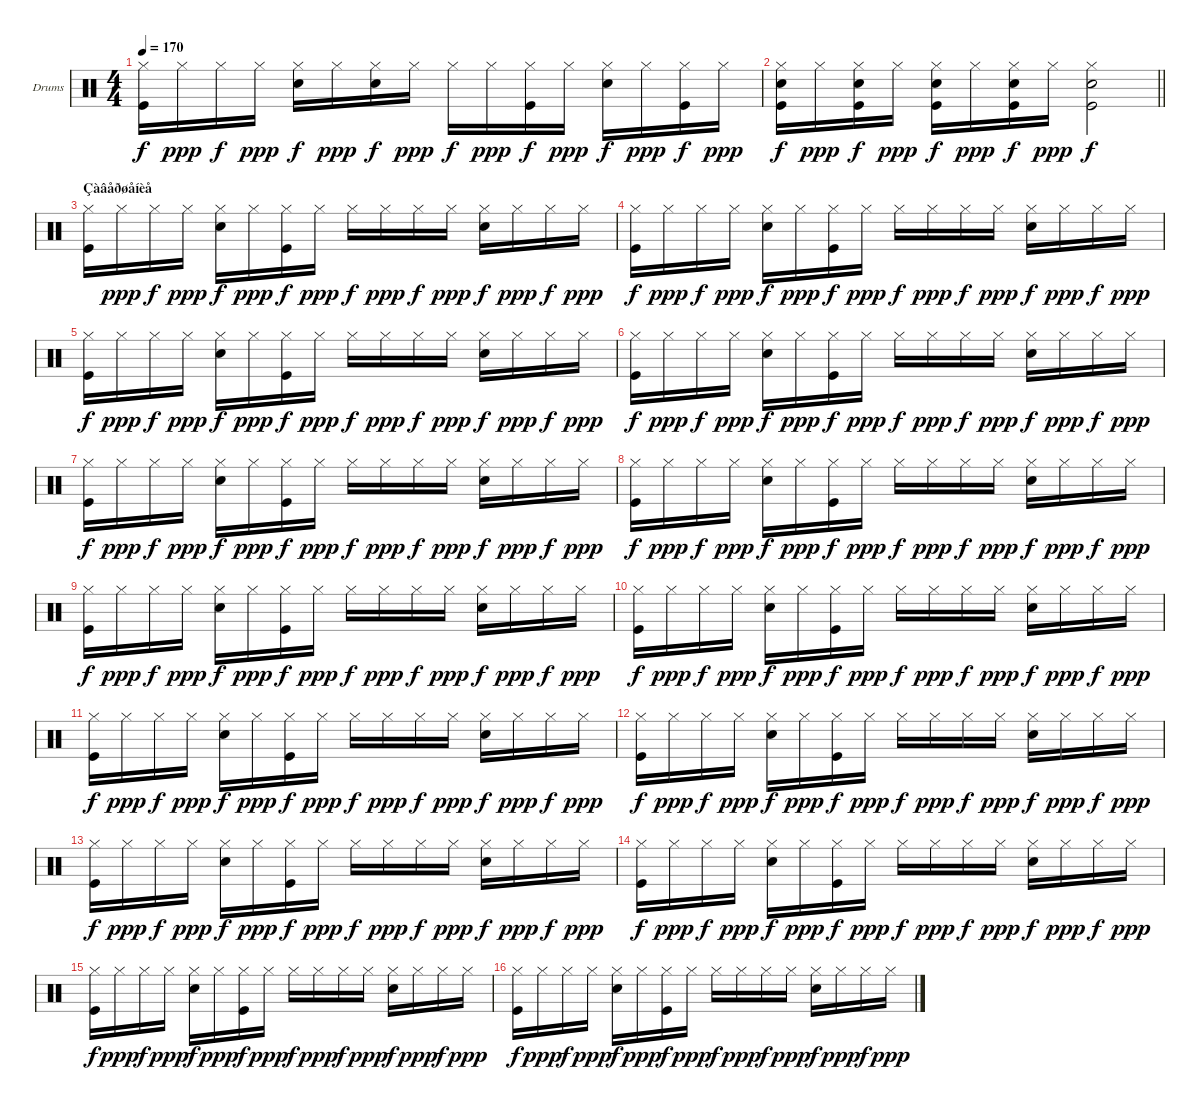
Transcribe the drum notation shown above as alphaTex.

\bracketExtendMode groupsimilarinstruments
\firstSystemTrackNameOrientation horizontal
\otherSystemsTrackNameOrientation horizontal
\track ("Drumkit" "Drums") {instrument percussion}
\staff {score}
\articulation defaults
\ts (4 4)
\tempo 170
\clef neutral
\ks c
("Hi-Hat (closed)" "Kick (hit)").16{dy f} "Hi-Hat (closed)".16{dy ppp} "Hi-Hat (closed)".16{dy f} "Hi-Hat (closed)".16{dy ppp} ("Hi-Hat (closed)" "Snare (hit) 2").16{dy f} "Hi-Hat (closed)".16{dy ppp} ("Hi-Hat (closed)" "Snare (hit) 2").16{dy f} "Hi-Hat (closed)".16{dy ppp} "Hi-Hat (closed)".16{dy f} "Hi-Hat (closed)".16{dy ppp} ("Hi-Hat (closed)" "Kick (hit)").16{dy f} "Hi-Hat (closed)".16{dy ppp} ("Hi-Hat (closed)" "Snare (hit) 2").16{dy f} "Hi-Hat (closed)".16{dy ppp} ("Hi-Hat (closed)" "Kick (hit)").16{dy f} "Hi-Hat (closed)".16{dy ppp} |
\barLineRight lightlight
("Hi-Hat (closed)" "Snare (hit) 2" "Kick (hit)").16{dy f} "Hi-Hat (closed)".16{dy ppp} ("Hi-Hat (closed)" "Snare (hit) 2" "Kick (hit)").16{dy f} "Hi-Hat (closed)".16{dy ppp} ("Hi-Hat (closed)" "Kick (hit)" "Snare (hit) 2").16{dy f} "Hi-Hat (closed)".16{dy ppp} ("Hi-Hat (closed)" "Kick (hit)" "Snare (hit) 2").16{dy f} "Hi-Hat (closed)".16{dy ppp} ("Hi-Hat (closed)" "Snare (hit) 2" "Kick (hit)").2{dy f} |
\section ("" "Çàâåðøåíèå")
("Hi-Hat (closed)" "Kick (hit)").16 "Hi-Hat (closed)".16{dy ppp} "Hi-Hat (closed)".16{dy f} "Hi-Hat (closed)".16{dy ppp} ("Hi-Hat (closed)" "Snare (hit) 2").16{dy f} "Hi-Hat (closed)".16{dy ppp} ("Hi-Hat (closed)" "Kick (hit)").16{dy f} "Hi-Hat (closed)".16{dy ppp} "Hi-Hat (closed)".16{dy f} "Hi-Hat (closed)".16{dy ppp} "Hi-Hat (closed)".16{dy f} "Hi-Hat (closed)".16{dy ppp} ("Hi-Hat (closed)" "Snare (hit) 2").16{dy f} "Hi-Hat (closed)".16{dy ppp} "Hi-Hat (closed)".16{dy f} "Hi-Hat (closed)".16{dy ppp} |
("Hi-Hat (closed)" "Kick (hit)").16{dy f} "Hi-Hat (closed)".16{dy ppp} "Hi-Hat (closed)".16{dy f} "Hi-Hat (closed)".16{dy ppp} ("Hi-Hat (closed)" "Snare (hit) 2").16{dy f} "Hi-Hat (closed)".16{dy ppp} ("Hi-Hat (closed)" "Kick (hit)").16{dy f} "Hi-Hat (closed)".16{dy ppp} "Hi-Hat (closed)".16{dy f} "Hi-Hat (closed)".16{dy ppp} "Hi-Hat (closed)".16{dy f} "Hi-Hat (closed)".16{dy ppp} ("Hi-Hat (closed)" "Snare (hit) 2").16{dy f} "Hi-Hat (closed)".16{dy ppp} "Hi-Hat (closed)".16{dy f} "Hi-Hat (closed)".16{dy ppp} |
("Hi-Hat (closed)" "Kick (hit)").16{dy f} "Hi-Hat (closed)".16{dy ppp} "Hi-Hat (closed)".16{dy f} "Hi-Hat (closed)".16{dy ppp} ("Hi-Hat (closed)" "Snare (hit) 2").16{dy f} "Hi-Hat (closed)".16{dy ppp} ("Hi-Hat (closed)" "Kick (hit)").16{dy f} "Hi-Hat (closed)".16{dy ppp} "Hi-Hat (closed)".16{dy f} "Hi-Hat (closed)".16{dy ppp} "Hi-Hat (closed)".16{dy f} "Hi-Hat (closed)".16{dy ppp} ("Hi-Hat (closed)" "Snare (hit) 2").16{dy f} "Hi-Hat (closed)".16{dy ppp} "Hi-Hat (closed)".16{dy f} "Hi-Hat (closed)".16{dy ppp} |
("Hi-Hat (closed)" "Kick (hit)").16{dy f} "Hi-Hat (closed)".16{dy ppp} "Hi-Hat (closed)".16{dy f} "Hi-Hat (closed)".16{dy ppp} ("Hi-Hat (closed)" "Snare (hit) 2").16{dy f} "Hi-Hat (closed)".16{dy ppp} ("Hi-Hat (closed)" "Kick (hit)").16{dy f} "Hi-Hat (closed)".16{dy ppp} "Hi-Hat (closed)".16{dy f} "Hi-Hat (closed)".16{dy ppp} "Hi-Hat (closed)".16{dy f} "Hi-Hat (closed)".16{dy ppp} ("Hi-Hat (closed)" "Snare (hit) 2").16{dy f} "Hi-Hat (closed)".16{dy ppp} "Hi-Hat (closed)".16{dy f} "Hi-Hat (closed)".16{dy ppp} |
("Hi-Hat (closed)" "Kick (hit)").16{dy f} "Hi-Hat (closed)".16{dy ppp} "Hi-Hat (closed)".16{dy f} "Hi-Hat (closed)".16{dy ppp} ("Hi-Hat (closed)" "Snare (hit) 2").16{dy f} "Hi-Hat (closed)".16{dy ppp} ("Hi-Hat (closed)" "Kick (hit)").16{dy f} "Hi-Hat (closed)".16{dy ppp} "Hi-Hat (closed)".16{dy f} "Hi-Hat (closed)".16{dy ppp} "Hi-Hat (closed)".16{dy f} "Hi-Hat (closed)".16{dy ppp} ("Hi-Hat (closed)" "Snare (hit) 2").16{dy f} "Hi-Hat (closed)".16{dy ppp} "Hi-Hat (closed)".16{dy f} "Hi-Hat (closed)".16{dy ppp} |
("Hi-Hat (closed)" "Kick (hit)").16{dy f} "Hi-Hat (closed)".16{dy ppp} "Hi-Hat (closed)".16{dy f} "Hi-Hat (closed)".16{dy ppp} ("Hi-Hat (closed)" "Snare (hit) 2").16{dy f} "Hi-Hat (closed)".16{dy ppp} ("Hi-Hat (closed)" "Kick (hit)").16{dy f} "Hi-Hat (closed)".16{dy ppp} "Hi-Hat (closed)".16{dy f} "Hi-Hat (closed)".16{dy ppp} "Hi-Hat (closed)".16{dy f} "Hi-Hat (closed)".16{dy ppp} ("Hi-Hat (closed)" "Snare (hit) 2").16{dy f} "Hi-Hat (closed)".16{dy ppp} "Hi-Hat (closed)".16{dy f} "Hi-Hat (closed)".16{dy ppp} |
("Hi-Hat (closed)" "Kick (hit)").16{dy f} "Hi-Hat (closed)".16{dy ppp} "Hi-Hat (closed)".16{dy f} "Hi-Hat (closed)".16{dy ppp} ("Hi-Hat (closed)" "Snare (hit) 2").16{dy f} "Hi-Hat (closed)".16{dy ppp} ("Hi-Hat (closed)" "Kick (hit)").16{dy f} "Hi-Hat (closed)".16{dy ppp} "Hi-Hat (closed)".16{dy f} "Hi-Hat (closed)".16{dy ppp} "Hi-Hat (closed)".16{dy f} "Hi-Hat (closed)".16{dy ppp} ("Hi-Hat (closed)" "Snare (hit) 2").16{dy f} "Hi-Hat (closed)".16{dy ppp} "Hi-Hat (closed)".16{dy f} "Hi-Hat (closed)".16{dy ppp} |
("Hi-Hat (closed)" "Kick (hit)").16{dy f} "Hi-Hat (closed)".16{dy ppp} "Hi-Hat (closed)".16{dy f} "Hi-Hat (closed)".16{dy ppp} ("Hi-Hat (closed)" "Snare (hit) 2").16{dy f} "Hi-Hat (closed)".16{dy ppp} ("Hi-Hat (closed)" "Kick (hit)").16{dy f} "Hi-Hat (closed)".16{dy ppp} "Hi-Hat (closed)".16{dy f} "Hi-Hat (closed)".16{dy ppp} "Hi-Hat (closed)".16{dy f} "Hi-Hat (closed)".16{dy ppp} ("Hi-Hat (closed)" "Snare (hit) 2").16{dy f} "Hi-Hat (closed)".16{dy ppp} "Hi-Hat (closed)".16{dy f} "Hi-Hat (closed)".16{dy ppp} |
("Hi-Hat (closed)" "Kick (hit)").16{dy f} "Hi-Hat (closed)".16{dy ppp} "Hi-Hat (closed)".16{dy f} "Hi-Hat (closed)".16{dy ppp} ("Hi-Hat (closed)" "Snare (hit) 2").16{dy f} "Hi-Hat (closed)".16{dy ppp} ("Hi-Hat (closed)" "Kick (hit)").16{dy f} "Hi-Hat (closed)".16{dy ppp} "Hi-Hat (closed)".16{dy f} "Hi-Hat (closed)".16{dy ppp} "Hi-Hat (closed)".16{dy f} "Hi-Hat (closed)".16{dy ppp} ("Hi-Hat (closed)" "Snare (hit) 2").16{dy f} "Hi-Hat (closed)".16{dy ppp} "Hi-Hat (closed)".16{dy f} "Hi-Hat (closed)".16{dy ppp} |
("Hi-Hat (closed)" "Kick (hit)").16{dy f} "Hi-Hat (closed)".16{dy ppp} "Hi-Hat (closed)".16{dy f} "Hi-Hat (closed)".16{dy ppp} ("Hi-Hat (closed)" "Snare (hit) 2").16{dy f} "Hi-Hat (closed)".16{dy ppp} ("Hi-Hat (closed)" "Kick (hit)").16{dy f} "Hi-Hat (closed)".16{dy ppp} "Hi-Hat (closed)".16{dy f} "Hi-Hat (closed)".16{dy ppp} "Hi-Hat (closed)".16{dy f} "Hi-Hat (closed)".16{dy ppp} ("Hi-Hat (closed)" "Snare (hit) 2").16{dy f} "Hi-Hat (closed)".16{dy ppp} "Hi-Hat (closed)".16{dy f} "Hi-Hat (closed)".16{dy ppp} |
("Hi-Hat (closed)" "Kick (hit)").16{dy f} "Hi-Hat (closed)".16{dy ppp} "Hi-Hat (closed)".16{dy f} "Hi-Hat (closed)".16{dy ppp} ("Hi-Hat (closed)" "Snare (hit) 2").16{dy f} "Hi-Hat (closed)".16{dy ppp} ("Hi-Hat (closed)" "Kick (hit)").16{dy f} "Hi-Hat (closed)".16{dy ppp} "Hi-Hat (closed)".16{dy f} "Hi-Hat (closed)".16{dy ppp} "Hi-Hat (closed)".16{dy f} "Hi-Hat (closed)".16{dy ppp} ("Hi-Hat (closed)" "Snare (hit) 2").16{dy f} "Hi-Hat (closed)".16{dy ppp} "Hi-Hat (closed)".16{dy f} "Hi-Hat (closed)".16{dy ppp} |
("Hi-Hat (closed)" "Kick (hit)").16{dy f} "Hi-Hat (closed)".16{dy ppp} "Hi-Hat (closed)".16{dy f} "Hi-Hat (closed)".16{dy ppp} ("Hi-Hat (closed)" "Snare (hit) 2").16{dy f} "Hi-Hat (closed)".16{dy ppp} ("Hi-Hat (closed)" "Kick (hit)").16{dy f} "Hi-Hat (closed)".16{dy ppp} "Hi-Hat (closed)".16{dy f} "Hi-Hat (closed)".16{dy ppp} "Hi-Hat (closed)".16{dy f} "Hi-Hat (closed)".16{dy ppp} ("Hi-Hat (closed)" "Snare (hit) 2").16{dy f} "Hi-Hat (closed)".16{dy ppp} "Hi-Hat (closed)".16{dy f} "Hi-Hat (closed)".16{dy ppp} |
("Hi-Hat (closed)" "Kick (hit)").16{dy f} "Hi-Hat (closed)".16{dy ppp} "Hi-Hat (closed)".16{dy f} "Hi-Hat (closed)".16{dy ppp} ("Hi-Hat (closed)" "Snare (hit) 2").16{dy f} "Hi-Hat (closed)".16{dy ppp} ("Hi-Hat (closed)" "Kick (hit)").16{dy f} "Hi-Hat (closed)".16{dy ppp} "Hi-Hat (closed)".16{dy f} "Hi-Hat (closed)".16{dy ppp} "Hi-Hat (closed)".16{dy f} "Hi-Hat (closed)".16{dy ppp} ("Hi-Hat (closed)" "Snare (hit) 2").16{dy f} "Hi-Hat (closed)".16{dy ppp} "Hi-Hat (closed)".16{dy f} "Hi-Hat (closed)".16{dy ppp} |
("Hi-Hat (closed)" "Kick (hit)").16{dy f} "Hi-Hat (closed)".16{dy ppp} "Hi-Hat (closed)".16{dy f} "Hi-Hat (closed)".16{dy ppp} ("Hi-Hat (closed)" "Snare (hit) 2").16{dy f} "Hi-Hat (closed)".16{dy ppp} ("Hi-Hat (closed)" "Kick (hit)").16{dy f} "Hi-Hat (closed)".16{dy ppp} "Hi-Hat (closed)".16{dy f} "Hi-Hat (closed)".16{dy ppp} "Hi-Hat (closed)".16{dy f} "Hi-Hat (closed)".16{dy ppp} ("Hi-Hat (closed)" "Snare (hit) 2").16{dy f} "Hi-Hat (closed)".16{dy ppp} "Hi-Hat (closed)".16{dy f} "Hi-Hat (closed)".16{dy ppp}
